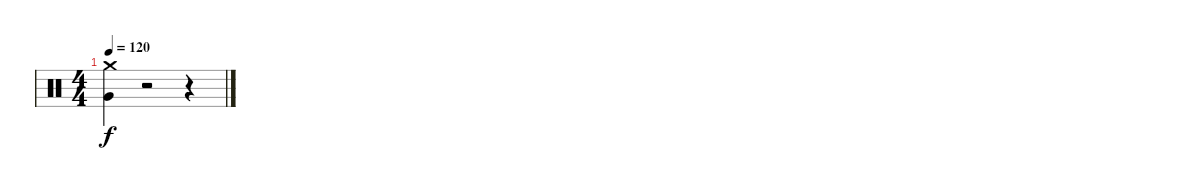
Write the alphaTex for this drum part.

\track "" {instrument percussion}
\staff {score}
\articulation defaults
\ts (4 4)
\tempo 120
\clef neutral
\ks c
("Crash medium (hit)" "Very Low Tom (hit)").4{dy f} r.2 r.4
